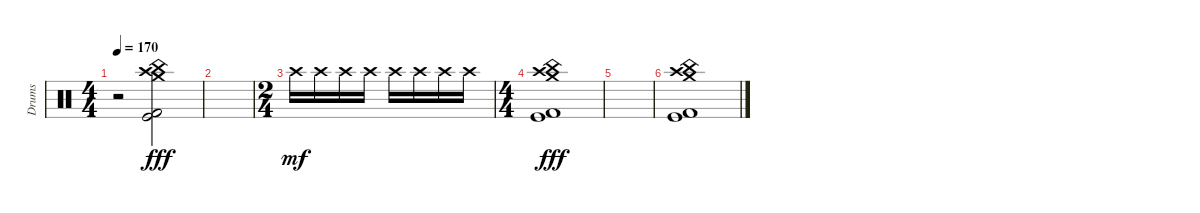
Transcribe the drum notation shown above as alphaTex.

\track ("Drums" "Drums") {instrument percussion}
\staff {score}
\articulation defaults
\ts (4 4)
\tempo 170
\clef neutral
\ks c
r.2{dy fff} ("Crash medium (hit)" "Kick (hit)" "Kick (hit) 2" "Crash high (hit)" "China (hit)").2 |
|
\ts (2 4)
"Crash high (hit)".16{dy mf} "Crash high (hit)".16 "Crash high (hit)".16 "Crash high (hit)".16 "Crash high (hit)".16 "Crash high (hit)".16 "Crash high (hit)".16 "Crash high (hit)".16 |
\ts (4 4)
("Crash medium (hit)" "Kick (hit)" "Kick (hit) 2" "Crash high (hit)" "China (hit)").1{dy fff} |
|
("Crash medium (hit)" "Kick (hit)" "Kick (hit) 2" "Crash high (hit)" "China (hit)").1
